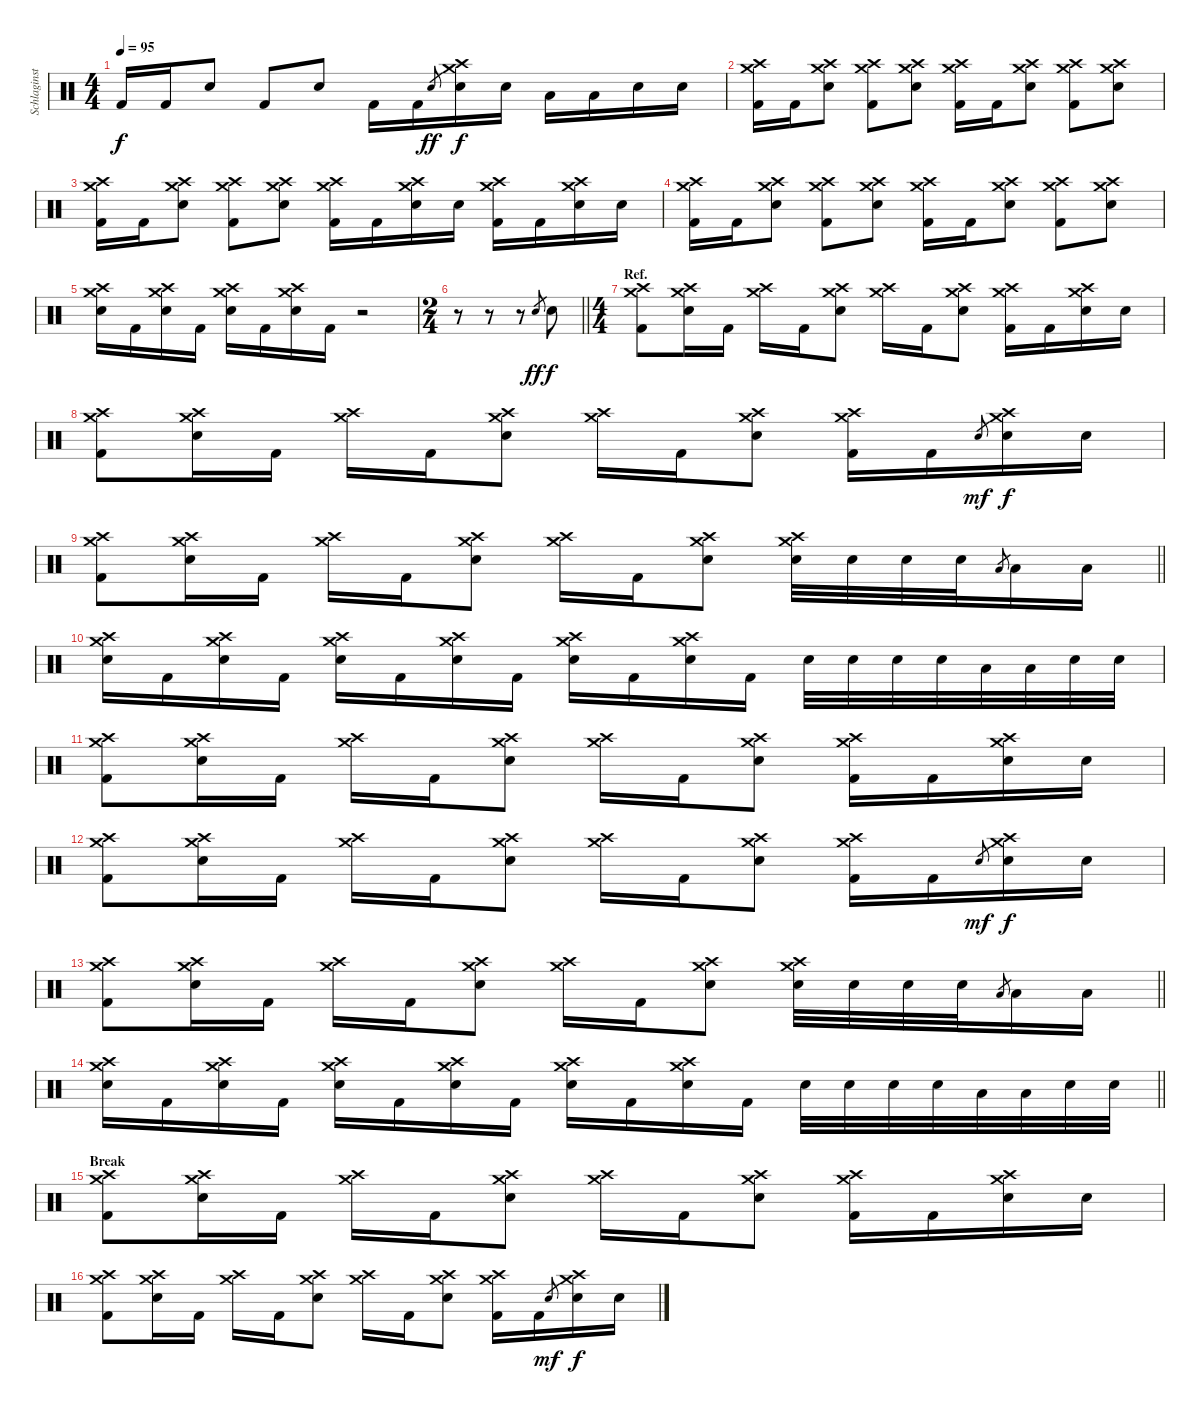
\track ("Schlaginstrumente - Auswahl" "Schlaginst") {instrument percussion}
\staff {score}
\articulation defaults
\ts (4 4)
\tempo 95
\clef neutral
\ks c "Kick (hit) 2".16{dy f} "Kick (hit) 2".16 "Electric Snare (hit)".8 "Kick (hit) 2".8 "Electric Snare (hit)".8 "Kick (hit) 2".16 "Kick (hit) 2".16 "Electric Snare (hit)".8{gr dy ff}
("Crash high (hit)" "Crash medium (hit)" "Electric Snare (hit)").16{dy f} "Electric Snare (hit)".16 "Low Tom (hit)".16 "Low Tom (hit)".16 "Snare (hit) 2".16 "Snare (hit) 2".16 |
("Crash high (hit)" "Crash medium (hit)" "Kick (hit) 2").16 "Kick (hit) 2".16 ("Crash high (hit)" "Crash medium (hit)" "Electric Snare (hit)").8 ("Crash high (hit)" "Crash medium (hit)" "Kick (hit) 2").8 ("Crash high (hit)" "Crash medium (hit)" "Electric Snare (hit)").8 ("Crash high (hit)" "Crash medium (hit)" "Kick (hit) 2").16 "Kick (hit) 2".16 ("Crash high (hit)" "Crash medium (hit)" "Electric Snare (hit)").8 ("Crash high (hit)" "Crash medium (hit)" "Kick (hit) 2").8 ("Crash high (hit)" "Crash medium (hit)" "Electric Snare (hit)").8 |
("Crash high (hit)" "Crash medium (hit)" "Kick (hit) 2").16 "Kick (hit) 2".16 ("Crash high (hit)" "Crash medium (hit)" "Electric Snare (hit)").8 ("Crash high (hit)" "Crash medium (hit)" "Kick (hit) 2").8 ("Crash high (hit)" "Crash medium (hit)" "Electric Snare (hit)").8 ("Crash high (hit)" "Crash medium (hit)" "Kick (hit) 2").16 "Kick (hit) 2".16 ("Crash high (hit)" "Crash medium (hit)" "Electric Snare (hit)").16 "Electric Snare (hit)".16 ("Crash high (hit)" "Crash medium (hit)" "Kick (hit) 2").16 "Kick (hit) 2".16 ("Crash high (hit)" "Crash medium (hit)" "Electric Snare (hit)").16 "Electric Snare (hit)".16 |
("Crash high (hit)" "Crash medium (hit)" "Kick (hit) 2").16 "Kick (hit) 2".16 ("Crash high (hit)" "Crash medium (hit)" "Electric Snare (hit)").8 ("Crash high (hit)" "Crash medium (hit)" "Kick (hit) 2").8 ("Crash high (hit)" "Crash medium (hit)" "Electric Snare (hit)").8 ("Crash high (hit)" "Crash medium (hit)" "Kick (hit) 2").16 "Kick (hit) 2".16 ("Crash high (hit)" "Crash medium (hit)" "Electric Snare (hit)").8 ("Crash high (hit)" "Crash medium (hit)" "Kick (hit) 2").8 ("Crash high (hit)" "Crash medium (hit)" "Electric Snare (hit)").8 |
("Crash high (hit)" "Crash medium (hit)" "Electric Snare (hit)").16 "Kick (hit) 2".16 ("Crash high (hit)" "Crash medium (hit)" "Electric Snare (hit)").16 "Kick (hit) 2".16 ("Crash high (hit)" "Crash medium (hit)" "Electric Snare (hit)").16 "Kick (hit) 2".16 ("Crash high (hit)" "Crash medium (hit)" "Electric Snare (hit)").16 "Kick (hit) 2".16 r.2 |
\ts (2 4)
\barLineRight lightlight
r.8 r.8 r.8 "Electric Snare (hit)".8{gr dy ff} "Electric Snare (hit)".8{dy f} |
\ts (4 4)
\section ("" "Ref.")
("Crash high (hit)" "Crash medium (hit)" "Kick (hit) 2").8 ("Crash high (hit)" "Crash medium (hit)" "Electric Snare (hit)").16 "Kick (hit) 2".16 ("Crash high (hit)" "Crash medium (hit)").16 "Kick (hit) 2".16 ("Crash high (hit)" "Crash medium (hit)" "Electric Snare (hit)").8 ("Crash high (hit)" "Crash medium (hit)").16 "Kick (hit) 2".16 ("Crash high (hit)" "Crash medium (hit)" "Electric Snare (hit)").8 ("Crash high (hit)" "Crash medium (hit)" "Kick (hit) 2").16 "Kick (hit) 2".16 ("Crash high (hit)" "Crash medium (hit)" "Electric Snare (hit)").16 "Electric Snare (hit)".16 |
("Crash high (hit)" "Crash medium (hit)" "Kick (hit) 2").8 ("Crash high (hit)" "Crash medium (hit)" "Electric Snare (hit)").16 "Kick (hit) 2".16 ("Crash high (hit)" "Crash medium (hit)").16 "Kick (hit) 2".16 ("Crash high (hit)" "Crash medium (hit)" "Electric Snare (hit)").8 ("Crash high (hit)" "Crash medium (hit)").16 "Kick (hit) 2".16 ("Crash high (hit)" "Crash medium (hit)" "Electric Snare (hit)").8 ("Crash high (hit)" "Crash medium (hit)" "Kick (hit) 2").16 "Kick (hit) 2".16 "Electric Snare (hit)".8{gr dy mf} ("Crash high (hit)" "Crash medium (hit)" "Electric Snare (hit)").16{dy f} "Electric Snare (hit)".16 |
\barLineRight lightlight
("Crash high (hit)" "Crash medium (hit)" "Kick (hit) 2").8 ("Crash high (hit)" "Crash medium (hit)" "Electric Snare (hit)").16 "Kick (hit) 2".16 ("Crash high (hit)" "Crash medium (hit)").16 "Kick (hit) 2".16 ("Crash high (hit)" "Crash medium (hit)" "Electric Snare (hit)").8 ("Crash high (hit)" "Crash medium (hit)").16 "Kick (hit) 2".16 ("Crash high (hit)" "Crash medium (hit)" "Electric Snare (hit)").8 ("Crash high (hit)" "Crash medium (hit)" "Electric Snare (hit)").32 "Electric Snare (hit)".32 "Electric Snare (hit)".32 "Electric Snare (hit)".32 "Low Tom (hit)".8{gr} "Low Tom (hit)".16 "Low Tom (hit)".16 |
("Crash high (hit)" "Crash medium (hit)" "Electric Snare (hit)").16 "Kick (hit) 2".16 ("Crash high (hit)" "Crash medium (hit)" "Electric Snare (hit)").16 "Kick (hit) 2".16 ("Crash high (hit)" "Crash medium (hit)" "Electric Snare (hit)").16 "Kick (hit) 2".16 ("Crash high (hit)" "Crash medium (hit)" "Electric Snare (hit)").16 "Kick (hit) 2".16 ("Crash high (hit)" "Crash medium (hit)" "Electric Snare (hit)").16 "Kick (hit) 2".16 ("Crash high (hit)" "Crash medium (hit)" "Electric Snare (hit)").16 "Kick (hit) 2".16 "Electric Snare (hit)".32 "Electric Snare (hit)".32 "Electric Snare (hit)".32 "Electric Snare (hit)".32 "Low Tom (hit)".32 "Low Tom (hit)".32 "Snare (hit) 2".32 "Snare (hit) 2".32 |
("Crash high (hit)" "Crash medium (hit)" "Kick (hit) 2").8 ("Crash high (hit)" "Crash medium (hit)" "Electric Snare (hit)").16 "Kick (hit) 2".16 ("Crash high (hit)" "Crash medium (hit)").16 "Kick (hit) 2".16 ("Crash high (hit)" "Crash medium (hit)" "Electric Snare (hit)").8 ("Crash high (hit)" "Crash medium (hit)").16 "Kick (hit) 2".16 ("Crash high (hit)" "Crash medium (hit)" "Electric Snare (hit)").8 ("Crash high (hit)" "Crash medium (hit)" "Kick (hit) 2").16 "Kick (hit) 2".16 ("Crash high (hit)" "Crash medium (hit)" "Electric Snare (hit)").16 "Electric Snare (hit)".16 |
("Crash high (hit)" "Crash medium (hit)" "Kick (hit) 2").8 ("Crash high (hit)" "Crash medium (hit)" "Electric Snare (hit)").16 "Kick (hit) 2".16 ("Crash high (hit)" "Crash medium (hit)").16 "Kick (hit) 2".16 ("Crash high (hit)" "Crash medium (hit)" "Electric Snare (hit)").8 ("Crash high (hit)" "Crash medium (hit)").16 "Kick (hit) 2".16 ("Crash high (hit)" "Crash medium (hit)" "Electric Snare (hit)").8 ("Crash high (hit)" "Crash medium (hit)" "Kick (hit) 2").16 "Kick (hit) 2".16 "Electric Snare (hit)".8{gr dy mf} ("Crash high (hit)" "Crash medium (hit)" "Electric Snare (hit)").16{dy f} "Electric Snare (hit)".16 |
\barLineRight lightlight
("Crash high (hit)" "Crash medium (hit)" "Kick (hit) 2").8 ("Crash high (hit)" "Crash medium (hit)" "Electric Snare (hit)").16 "Kick (hit) 2".16 ("Crash high (hit)" "Crash medium (hit)").16 "Kick (hit) 2".16 ("Crash high (hit)" "Crash medium (hit)" "Electric Snare (hit)").8 ("Crash high (hit)" "Crash medium (hit)").16 "Kick (hit) 2".16 ("Crash high (hit)" "Crash medium (hit)" "Electric Snare (hit)").8 ("Crash high (hit)" "Crash medium (hit)" "Electric Snare (hit)").32 "Electric Snare (hit)".32 "Electric Snare (hit)".32 "Electric Snare (hit)".32 "Low Tom (hit)".8{gr} "Low Tom (hit)".16 "Low Tom (hit)".16 |
\barLineRight lightlight
("Crash high (hit)" "Crash medium (hit)" "Electric Snare (hit)").16 "Kick (hit) 2".16 ("Crash high (hit)" "Crash medium (hit)" "Electric Snare (hit)").16 "Kick (hit) 2".16 ("Crash high (hit)" "Crash medium (hit)" "Electric Snare (hit)").16 "Kick (hit) 2".16 ("Crash high (hit)" "Crash medium (hit)" "Electric Snare (hit)").16 "Kick (hit) 2".16 ("Crash high (hit)" "Crash medium (hit)" "Electric Snare (hit)").16 "Kick (hit) 2".16 ("Crash high (hit)" "Crash medium (hit)" "Electric Snare (hit)").16 "Kick (hit) 2".16 "Electric Snare (hit)".32 "Electric Snare (hit)".32 "Electric Snare (hit)".32 "Electric Snare (hit)".32 "Low Tom (hit)".32 "Low Tom (hit)".32 "Snare (hit) 2".32 "Snare (hit) 2".32 |
\section ("" "Break")
("Crash high (hit)" "Crash medium (hit)" "Kick (hit) 2").8 ("Crash high (hit)" "Crash medium (hit)" "Electric Snare (hit)").16 "Kick (hit) 2".16 ("Crash high (hit)" "Crash medium (hit)").16 "Kick (hit) 2".16 ("Crash high (hit)" "Crash medium (hit)" "Electric Snare (hit)").8 ("Crash high (hit)" "Crash medium (hit)").16 "Kick (hit) 2".16 ("Crash high (hit)" "Crash medium (hit)" "Electric Snare (hit)").8 ("Crash high (hit)" "Crash medium (hit)" "Kick (hit) 2").16 "Kick (hit) 2".16 ("Crash high (hit)" "Crash medium (hit)" "Electric Snare (hit)").16 "Electric Snare (hit)".16 |
("Crash high (hit)" "Crash medium (hit)" "Kick (hit) 2").8 ("Crash high (hit)" "Crash medium (hit)" "Electric Snare (hit)").16 "Kick (hit) 2".16 ("Crash high (hit)" "Crash medium (hit)").16 "Kick (hit) 2".16 ("Crash high (hit)" "Crash medium (hit)" "Electric Snare (hit)").8 ("Crash high (hit)" "Crash medium (hit)").16 "Kick (hit) 2".16 ("Crash high (hit)" "Crash medium (hit)" "Electric Snare (hit)").8 ("Crash high (hit)" "Crash medium (hit)" "Kick (hit) 2").16 "Kick (hit) 2".16 "Electric Snare (hit)".8{gr dy mf} ("Crash high (hit)" "Crash medium (hit)" "Electric Snare (hit)").16{dy f} "Electric Snare (hit)".16
